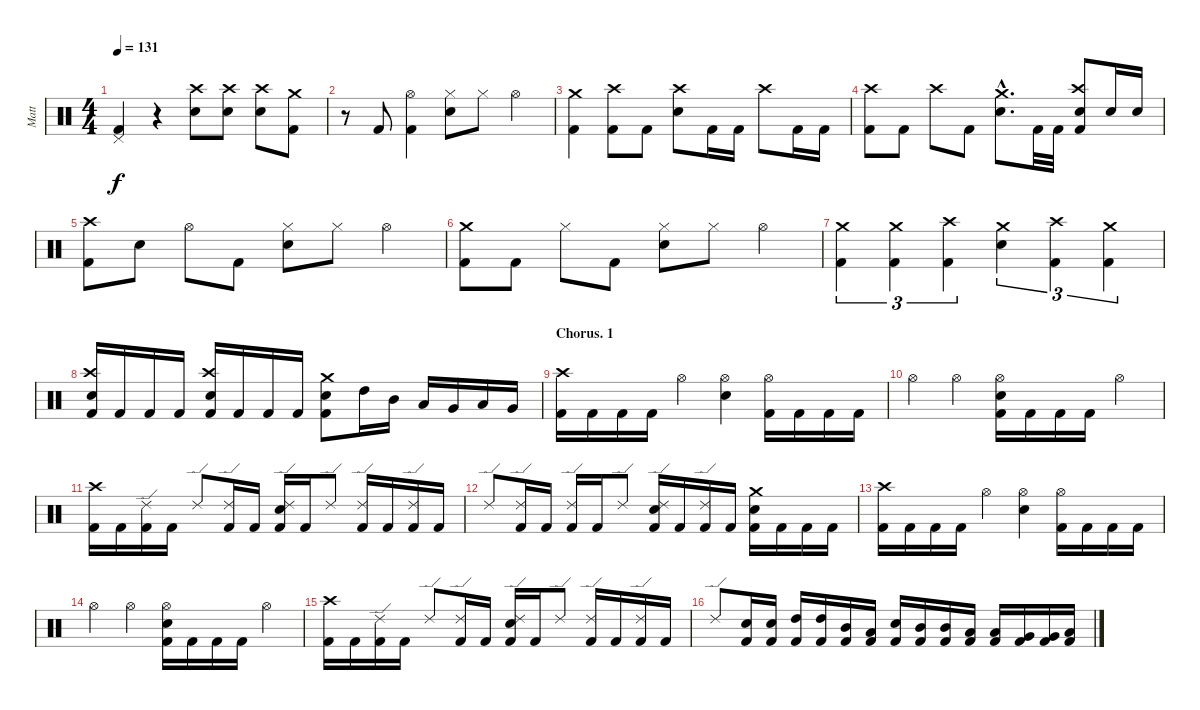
\track ("Matt" "Matt") {instrument percussion}
\staff {score}
\articulation defaults
\ts (4 4)
\tempo 131
\clef neutral
\ks c
("Pedal Hi-Hat (hit)" "Kick (hit) 2").4{dy f} r.4 ("Crash high (hit)" "Electric Snare (hit)").8 ("Crash high (hit)" "Electric Snare (hit)").8 ("Crash high (hit)" "Electric Snare (hit)").8 ("Crash medium (hit)" "Kick (hit) 2").8 |
r.8 "Kick (hit) 2".8 ("Hi-Hat (open)" "Kick (hit) 2").4 ("Hi-Hat (closed)" "Electric Snare (hit)").8 "Hi-Hat (closed)".8 "Hi-Hat (open)".4 |
("Crash medium (hit)" "Kick (hit) 2").4 ("Crash high (hit)" "Kick (hit) 2").8 "Kick (hit) 2".8 ("Crash high (hit)" "Electric Snare (hit)").8 "Kick (hit) 2".16 "Kick (hit) 2".16 "Crash high (hit)".8 "Kick (hit) 2".16 "Kick (hit) 2".16 |
("Crash high (hit)" "Kick (hit) 2").8 "Kick (hit) 2".8 "Crash high (hit)".8 "Kick (hit) 2".8 ("Crash medium (hit)"{hac} "Electric Snare (hit)"{hac}).8{d} "Kick (hit) 2".32 "Kick (hit) 2".32 ("Crash high (hit)" "Electric Snare (hit)" "Kick (hit) 2").8 "Electric Snare (hit)".16 "Electric Snare (hit)".16 |
("Crash high (hit)" "Kick (hit) 2").8 "Electric Snare (hit)".8 "Hi-Hat (open)".8 "Kick (hit) 2".8 ("Hi-Hat (closed)" "Electric Snare (hit)").8 "Hi-Hat (closed)".8 "Hi-Hat (open)".4 |
("Crash medium (hit)" "Kick (hit) 2").8 "Kick (hit) 2".8 "Hi-Hat (closed)".8 "Kick (hit) 2".8 ("Hi-Hat (closed)" "Electric Snare (hit)").8 "Hi-Hat (closed)".8 "Hi-Hat (open)".4 |
("Crash medium (hit)" "Kick (hit) 2").4{tu (3 2)} ("Crash medium (hit)" "Kick (hit) 2").4{tu (3 2)} ("Crash high (hit)" "Kick (hit) 2").4{tu (3 2)} ("Crash medium (hit)" "Electric Snare (hit)").4{tu (3 2)} ("Crash high (hit)" "Kick (hit) 2").4{tu (3 2)} ("Crash medium (hit)" "Kick (hit) 2").4{tu (3 2)} |
("Crash high (hit)" "Electric Snare (hit)" "Kick (hit) 2").16 "Kick (hit) 2".16 "Kick (hit) 2".16 "Kick (hit) 2".16 ("Crash high (hit)" "Electric Snare (hit)" "Kick (hit) 2").16 "Kick (hit) 2".16 "Kick (hit) 2".16 "Kick (hit) 2".16 ("Crash medium (hit)" "Electric Snare (hit)" "Kick (hit) 2").8 "High Tom (hit)".16 "Mid Tom (hit)".16 "Low Tom (hit)".16 "Very Low Tom (hit)".16 "Low Floor Tom (hit)".16 "Very Low Tom (hit)".16 |
\section ("" "Chorus. 1")
("Crash high (hit)" "Kick (hit) 2").16 "Kick (hit) 2".16 "Kick (hit) 2".16 "Kick (hit) 2".16 "Hi-Hat (open)".4 ("Hi-Hat (open)" "Electric Snare (hit)").4 ("Hi-Hat (open)" "Kick (hit) 2").16 "Kick (hit) 2".16 "Kick (hit) 2".16 "Kick (hit) 2".16 |
"Hi-Hat (open)".4 "Hi-Hat (open)".4 ("Hi-Hat (open)" "Electric Snare (hit)" "Kick (hit) 2").16 "Kick (hit) 2".16 "Kick (hit) 2".16 "Kick (hit) 2".16 "Hi-Hat (open)".4 |
("Crash high (hit)" "Kick (hit) 2").16 "Kick (hit) 2".16 ("Ride (edge) 2" "Kick (hit) 2").16 "Kick (hit) 2".16 "Ride (edge) 2".8 ("Ride (edge) 2" "Kick (hit) 2").16 "Kick (hit) 2".16 ("Ride (edge) 2" "Electric Snare (hit)" "Kick (hit) 2").16 "Kick (hit) 2".16 "Ride (edge) 2".8 ("Ride (edge) 2" "Kick (hit) 2").16 "Kick (hit) 2".16 ("Ride (edge) 2" "Kick (hit) 2").16 "Kick (hit) 2".16 |
"Ride (edge) 2".8 ("Ride (edge) 2" "Kick (hit) 2").16 "Kick (hit) 2".16 ("Ride (edge) 2" "Kick (hit) 2").16 "Kick (hit) 2".16 "Ride (edge) 2".8 ("Ride (edge) 2" "Electric Snare (hit)" "Kick (hit) 2").16 "Kick (hit) 2".16 ("Ride (edge) 2" "Kick (hit) 2").16 "Kick (hit) 2".16 ("Crash medium (hit)" "Electric Snare (hit)" "Kick (hit) 2").16 "Kick (hit) 2".16 "Kick (hit) 2".16 "Kick (hit) 2".16 |
("Crash high (hit)" "Kick (hit) 2").16 "Kick (hit) 2".16 "Kick (hit) 2".16 "Kick (hit) 2".16 "Hi-Hat (open)".4 ("Hi-Hat (open)" "Electric Snare (hit)").4 ("Hi-Hat (open)" "Kick (hit) 2").16 "Kick (hit) 2".16 "Kick (hit) 2".16 "Kick (hit) 2".16 |
"Hi-Hat (open)".4 "Hi-Hat (open)".4 ("Hi-Hat (open)" "Electric Snare (hit)" "Kick (hit) 2").16 "Kick (hit) 2".16 "Kick (hit) 2".16 "Kick (hit) 2".16 "Hi-Hat (open)".4 |
("Crash high (hit)" "Kick (hit) 2").16 "Kick (hit) 2".16 ("Ride (edge) 2" "Kick (hit) 2").16 "Kick (hit) 2".16 "Ride (edge) 2".8 ("Ride (edge) 2" "Kick (hit) 2").16 "Kick (hit) 2".16 ("Ride (edge) 2" "Electric Snare (hit)" "Kick (hit) 2").16 "Kick (hit) 2".16 "Ride (edge) 2".8 ("Ride (edge) 2" "Kick (hit) 2").16 "Kick (hit) 2".16 ("Ride (edge) 2" "Kick (hit) 2").16 "Kick (hit) 2".16 |
"Ride (edge) 2".8 ("Electric Snare (hit)" "Kick (hit) 2").16 ("Electric Snare (hit)" "Kick (hit) 2").16 ("High Tom (hit)" "Kick (hit) 2").16 ("High Tom (hit)" "Kick (hit) 2").16 ("Mid Tom (hit)" "Kick (hit) 2").16 ("Low Tom (hit)" "Kick (hit) 2").16 ("Electric Snare (hit)" "Kick (hit) 2").16 ("Mid Tom (hit)" "Kick (hit) 2").16 ("Mid Tom (hit)" "Kick (hit) 2").16 ("Low Tom (hit)" "Kick (hit) 2").16 ("Low Tom (hit)" "Kick (hit) 2").16 ("Very Low Tom (hit)" "Kick (hit) 2").16 ("Very Low Tom (hit)" "Kick (hit) 2").16 ("Low Floor Tom (hit)" "Kick (hit) 2").16
